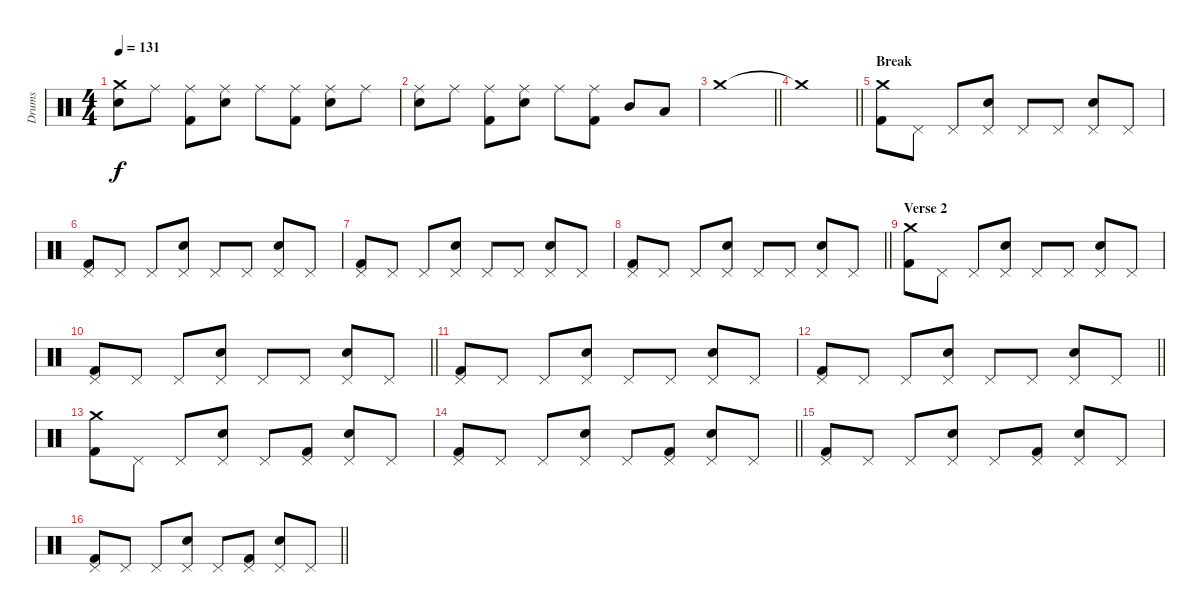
\track ("Drums" "Drums") {instrument percussion}
\staff {score}
\articulation defaults
\ts (4 4)
\tempo 131
\clef neutral
\ks c
("Crash medium (hit)" "Electric Snare (hit)").8{dy f} "Ride (middle)".8 ("Ride (middle)" "Kick (hit) 2").8 ("Ride (middle)" "Electric Snare (hit)").8 "Ride (middle)".8 ("Ride (middle)" "Kick (hit) 2").8 ("Ride (middle)" "Electric Snare (hit)").8 "Ride (middle)".8 |
("Ride (middle)" "Electric Snare (hit)").8 "Ride (middle)".8 ("Ride (middle)" "Kick (hit) 2").8 ("Ride (middle)" "Electric Snare (hit)").8 "Ride (middle)".8 ("Ride (middle)" "Kick (hit) 2").8 "Mid Tom (hit)".8 "Low Tom (hit)".8 |
\barLineRight lightlight "Crash medium (hit)".1
|
\barLineRight lightlight "Crash medium (hit)"{t}.1
|
\section ("" "Break")
("Crash medium (hit)" "Kick (hit) 2").8 "Pedal Hi-Hat (hit)".8 "Pedal Hi-Hat (hit)".8 ("Pedal Hi-Hat (hit)" "Electric Snare (hit)").8 "Pedal Hi-Hat (hit)".8 "Pedal Hi-Hat (hit)".8 ("Pedal Hi-Hat (hit)" "Electric Snare (hit)").8 "Pedal Hi-Hat (hit)".8 |
("Pedal Hi-Hat (hit)" "Kick (hit) 2").8 "Pedal Hi-Hat (hit)".8 "Pedal Hi-Hat (hit)".8 ("Pedal Hi-Hat (hit)" "Electric Snare (hit)").8 "Pedal Hi-Hat (hit)".8 "Pedal Hi-Hat (hit)".8 ("Pedal Hi-Hat (hit)" "Electric Snare (hit)").8 "Pedal Hi-Hat (hit)".8 |
("Pedal Hi-Hat (hit)" "Kick (hit) 2").8 "Pedal Hi-Hat (hit)".8 "Pedal Hi-Hat (hit)".8 ("Pedal Hi-Hat (hit)" "Electric Snare (hit)").8 "Pedal Hi-Hat (hit)".8 "Pedal Hi-Hat (hit)".8 ("Pedal Hi-Hat (hit)" "Electric Snare (hit)").8 "Pedal Hi-Hat (hit)".8 |
\barLineRight lightlight
("Pedal Hi-Hat (hit)" "Kick (hit) 2").8 "Pedal Hi-Hat (hit)".8 "Pedal Hi-Hat (hit)".8 ("Pedal Hi-Hat (hit)" "Electric Snare (hit)").8 "Pedal Hi-Hat (hit)".8 "Pedal Hi-Hat (hit)".8 ("Pedal Hi-Hat (hit)" "Electric Snare (hit)").8 "Pedal Hi-Hat (hit)".8 |
\section ("" "Verse 2")
("Crash medium (hit)" "Kick (hit) 2").8 "Pedal Hi-Hat (hit)".8 "Pedal Hi-Hat (hit)".8 ("Pedal Hi-Hat (hit)" "Electric Snare (hit)").8 "Pedal Hi-Hat (hit)".8 "Pedal Hi-Hat (hit)".8 ("Pedal Hi-Hat (hit)" "Electric Snare (hit)").8 "Pedal Hi-Hat (hit)".8 |
\barLineRight lightlight
("Pedal Hi-Hat (hit)" "Kick (hit) 2").8 "Pedal Hi-Hat (hit)".8 "Pedal Hi-Hat (hit)".8 ("Pedal Hi-Hat (hit)" "Electric Snare (hit)").8 "Pedal Hi-Hat (hit)".8 "Pedal Hi-Hat (hit)".8 ("Pedal Hi-Hat (hit)" "Electric Snare (hit)").8 "Pedal Hi-Hat (hit)".8 |
("Pedal Hi-Hat (hit)" "Kick (hit) 2").8 "Pedal Hi-Hat (hit)".8 "Pedal Hi-Hat (hit)".8 ("Pedal Hi-Hat (hit)" "Electric Snare (hit)").8 "Pedal Hi-Hat (hit)".8 "Pedal Hi-Hat (hit)".8 ("Pedal Hi-Hat (hit)" "Electric Snare (hit)").8 "Pedal Hi-Hat (hit)".8 |
\barLineRight lightlight
("Pedal Hi-Hat (hit)" "Kick (hit) 2").8 "Pedal Hi-Hat (hit)".8 "Pedal Hi-Hat (hit)".8 ("Pedal Hi-Hat (hit)" "Electric Snare (hit)").8 "Pedal Hi-Hat (hit)".8 "Pedal Hi-Hat (hit)".8 ("Pedal Hi-Hat (hit)" "Electric Snare (hit)").8 "Pedal Hi-Hat (hit)".8 |
("Crash medium (hit)" "Kick (hit) 2").8 "Pedal Hi-Hat (hit)".8 "Pedal Hi-Hat (hit)".8 ("Pedal Hi-Hat (hit)" "Electric Snare (hit)").8 "Pedal Hi-Hat (hit)".8 ("Pedal Hi-Hat (hit)" "Kick (hit) 2").8 ("Pedal Hi-Hat (hit)" "Electric Snare (hit)").8 "Pedal Hi-Hat (hit)".8 |
\barLineRight lightlight
("Pedal Hi-Hat (hit)" "Kick (hit) 2").8 "Pedal Hi-Hat (hit)".8 "Pedal Hi-Hat (hit)".8 ("Pedal Hi-Hat (hit)" "Electric Snare (hit)").8 "Pedal Hi-Hat (hit)".8 ("Pedal Hi-Hat (hit)" "Kick (hit) 2").8 ("Pedal Hi-Hat (hit)" "Electric Snare (hit)").8 "Pedal Hi-Hat (hit)".8 |
("Pedal Hi-Hat (hit)" "Kick (hit) 2").8 "Pedal Hi-Hat (hit)".8 "Pedal Hi-Hat (hit)".8 ("Pedal Hi-Hat (hit)" "Electric Snare (hit)").8 "Pedal Hi-Hat (hit)".8 ("Pedal Hi-Hat (hit)" "Kick (hit) 2").8 ("Pedal Hi-Hat (hit)" "Electric Snare (hit)").8 "Pedal Hi-Hat (hit)".8 |
\barLineRight lightlight
("Pedal Hi-Hat (hit)" "Kick (hit) 2").8 "Pedal Hi-Hat (hit)".8 "Pedal Hi-Hat (hit)".8 ("Pedal Hi-Hat (hit)" "Electric Snare (hit)").8 "Pedal Hi-Hat (hit)".8 ("Pedal Hi-Hat (hit)" "Kick (hit) 2").8 ("Pedal Hi-Hat (hit)" "Electric Snare (hit)").8 "Pedal Hi-Hat (hit)".8
